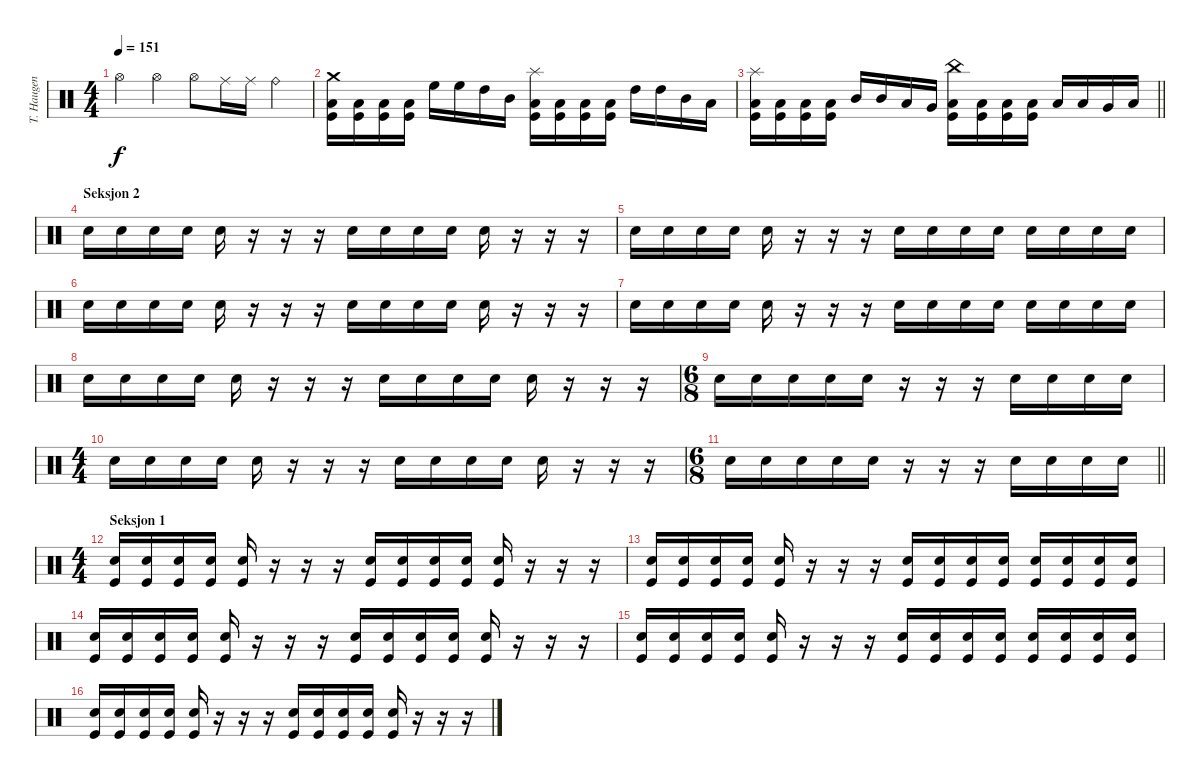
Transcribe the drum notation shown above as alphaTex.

\track ("T. Haugen" "T. Haugen") {instrument percussion}
\staff {score}
\articulation defaults
\ts (4 4)
\tempo 151
\clef neutral
\ks c "Hi-Hat (open)".4{dy f} "Hi-Hat (open)".4 "Hi-Hat (open)".8 "Ride (middle)".16 "Ride (middle)".16 "Ride (bell)".4
|
("Crash medium (hit)" "Low Floor Tom (hit)" "Kick (hit)").16 ("Low Floor Tom (hit)" "Kick (hit)").16 ("Low Floor Tom (hit)" "Kick (hit)").16 ("Low Floor Tom (hit)" "Kick (hit)").16 "High Floor Tom (hit)".16 "High Floor Tom (hit)".16 "High Tom (hit)".16 "Mid Tom (hit)".16 ("Splash (hit)" "Low Floor Tom (hit)" "Kick (hit)").16 ("Low Floor Tom (hit)" "Kick (hit)").16 ("Low Floor Tom (hit)" "Kick (hit)").16 ("Low Floor Tom (hit)" "Kick (hit)").16 "High Tom (hit)".16 "High Tom (hit)".16 "Mid Tom (hit)".16 "Low Tom (hit)".16 |
\barLineRight lightlight
("Splash (hit)" "Low Floor Tom (hit)" "Kick (hit)").16 ("Low Floor Tom (hit)" "Kick (hit)").16 ("Low Floor Tom (hit)" "Kick (hit)").16 ("Low Floor Tom (hit)" "Kick (hit)").16 "Mid Tom (hit)".16 "Mid Tom (hit)".16 "Low Tom (hit)".16 "Very Low Tom (hit)".16 ("China (hit)" "Low Floor Tom (hit)" "Kick (hit)").16 ("Low Floor Tom (hit)" "Kick (hit)").16 ("Low Floor Tom (hit)" "Kick (hit)").16 ("Low Floor Tom (hit)" "Kick (hit)").16 "Low Tom (hit)".16 "Low Tom (hit)".16 "Very Low Tom (hit)".16 "Low Floor Tom (hit)".16 |
\section ("" "Seksjon 2")
"Electric Snare (hit)".16 "Electric Snare (hit)".16 "Electric Snare (hit)".16 "Electric Snare (hit)".16 "Electric Snare (hit)".16 r.16 r.16 r.16 "Electric Snare (hit)".16 "Electric Snare (hit)".16 "Electric Snare (hit)".16 "Electric Snare (hit)".16 "Electric Snare (hit)".16 r.16 r.16 r.16 |
"Electric Snare (hit)".16 "Electric Snare (hit)".16 "Electric Snare (hit)".16 "Electric Snare (hit)".16 "Electric Snare (hit)".16 r.16 r.16 r.16 "Electric Snare (hit)".16 "Electric Snare (hit)".16 "Electric Snare (hit)".16 "Electric Snare (hit)".16 "Electric Snare (hit)".16 "Electric Snare (hit)".16 "Electric Snare (hit)".16 "Electric Snare (hit)".16 |
"Electric Snare (hit)".16 "Electric Snare (hit)".16 "Electric Snare (hit)".16 "Electric Snare (hit)".16 "Electric Snare (hit)".16 r.16 r.16 r.16 "Electric Snare (hit)".16 "Electric Snare (hit)".16 "Electric Snare (hit)".16 "Electric Snare (hit)".16 "Electric Snare (hit)".16 r.16 r.16 r.16 |
"Electric Snare (hit)".16 "Electric Snare (hit)".16 "Electric Snare (hit)".16 "Electric Snare (hit)".16 "Electric Snare (hit)".16 r.16 r.16 r.16 "Electric Snare (hit)".16 "Electric Snare (hit)".16 "Electric Snare (hit)".16 "Electric Snare (hit)".16 "Electric Snare (hit)".16 "Electric Snare (hit)".16 "Electric Snare (hit)".16 "Electric Snare (hit)".16 |
"Electric Snare (hit)".16 "Electric Snare (hit)".16 "Electric Snare (hit)".16 "Electric Snare (hit)".16 "Electric Snare (hit)".16 r.16 r.16 r.16 "Electric Snare (hit)".16 "Electric Snare (hit)".16 "Electric Snare (hit)".16 "Electric Snare (hit)".16 "Electric Snare (hit)".16 r.16 r.16 r.16 |
\ts (6 8)
"Electric Snare (hit)".16 "Electric Snare (hit)".16 "Electric Snare (hit)".16 "Electric Snare (hit)".16 "Electric Snare (hit)".16 r.16 r.16 r.16 "Electric Snare (hit)".16 "Electric Snare (hit)".16 "Electric Snare (hit)".16 "Electric Snare (hit)".16 |
\ts (4 4)
"Electric Snare (hit)".16 "Electric Snare (hit)".16 "Electric Snare (hit)".16 "Electric Snare (hit)".16 "Electric Snare (hit)".16 r.16 r.16 r.16 "Electric Snare (hit)".16 "Electric Snare (hit)".16 "Electric Snare (hit)".16 "Electric Snare (hit)".16 "Electric Snare (hit)".16 r.16 r.16 r.16 |
\ts (6 8)
\barLineRight lightlight "Electric Snare (hit)".16 "Electric Snare (hit)".16 "Electric Snare (hit)".16 "Electric Snare (hit)".16 "Electric Snare (hit)".16
r.16 r.16 r.16 "Electric Snare (hit)".16 "Electric Snare (hit)".16 "Electric Snare (hit)".16 "Electric Snare (hit)".16 |
\ts (4 4)
\section ("" "Seksjon 1")
("Electric Snare (hit)" "Kick (hit)").16 ("Electric Snare (hit)" "Kick (hit)").16 ("Electric Snare (hit)" "Kick (hit)").16 ("Electric Snare (hit)" "Kick (hit)").16 ("Electric Snare (hit)" "Kick (hit)").16 r.16 r.16 r.16 ("Electric Snare (hit)" "Kick (hit)").16 ("Electric Snare (hit)" "Kick (hit)").16 ("Electric Snare (hit)" "Kick (hit)").16 ("Electric Snare (hit)" "Kick (hit)").16 ("Electric Snare (hit)" "Kick (hit)").16 r.16 r.16 r.16 |
("Electric Snare (hit)" "Kick (hit)").16 ("Electric Snare (hit)" "Kick (hit)").16 ("Electric Snare (hit)" "Kick (hit)").16 ("Electric Snare (hit)" "Kick (hit)").16 ("Electric Snare (hit)" "Kick (hit)").16 r.16 r.16 r.16 ("Electric Snare (hit)" "Kick (hit)").16 ("Electric Snare (hit)" "Kick (hit)").16 ("Electric Snare (hit)" "Kick (hit)").16 ("Electric Snare (hit)" "Kick (hit)").16 ("Electric Snare (hit)" "Kick (hit)").16 ("Electric Snare (hit)" "Kick (hit)").16 ("Electric Snare (hit)" "Kick (hit)").16 ("Electric Snare (hit)" "Kick (hit)").16 |
("Electric Snare (hit)" "Kick (hit)").16 ("Electric Snare (hit)" "Kick (hit)").16 ("Electric Snare (hit)" "Kick (hit)").16 ("Electric Snare (hit)" "Kick (hit)").16 ("Electric Snare (hit)" "Kick (hit)").16 r.16 r.16 r.16 ("Electric Snare (hit)" "Kick (hit)").16 ("Electric Snare (hit)" "Kick (hit)").16 ("Electric Snare (hit)" "Kick (hit)").16 ("Electric Snare (hit)" "Kick (hit)").16 ("Electric Snare (hit)" "Kick (hit)").16 r.16 r.16 r.16 |
("Electric Snare (hit)" "Kick (hit)").16 ("Electric Snare (hit)" "Kick (hit)").16 ("Electric Snare (hit)" "Kick (hit)").16 ("Electric Snare (hit)" "Kick (hit)").16 ("Electric Snare (hit)" "Kick (hit)").16 r.16 r.16 r.16 ("Electric Snare (hit)" "Kick (hit)").16 ("Electric Snare (hit)" "Kick (hit)").16 ("Electric Snare (hit)" "Kick (hit)").16 ("Electric Snare (hit)" "Kick (hit)").16 ("Electric Snare (hit)" "Kick (hit)").16 ("Electric Snare (hit)" "Kick (hit)").16 ("Electric Snare (hit)" "Kick (hit)").16 ("Electric Snare (hit)" "Kick (hit)").16 |
("Electric Snare (hit)" "Kick (hit)").16 ("Electric Snare (hit)" "Kick (hit)").16 ("Electric Snare (hit)" "Kick (hit)").16 ("Electric Snare (hit)" "Kick (hit)").16 ("Electric Snare (hit)" "Kick (hit)").16 r.16 r.16 r.16 ("Electric Snare (hit)" "Kick (hit)").16 ("Electric Snare (hit)" "Kick (hit)").16 ("Electric Snare (hit)" "Kick (hit)").16 ("Electric Snare (hit)" "Kick (hit)").16 ("Electric Snare (hit)" "Kick (hit)").16 r.16 r.16 r.16
